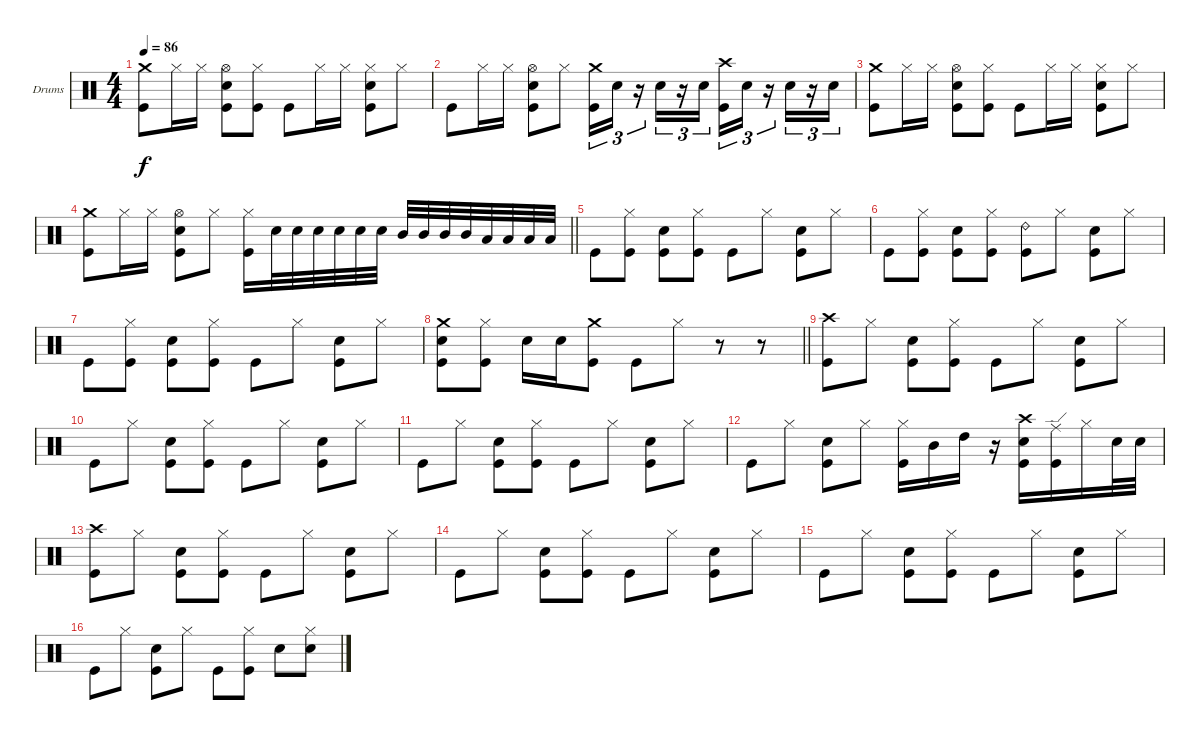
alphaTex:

\defaultSystemsLayout 4
\bracketExtendMode groupsimilarinstruments
\firstSystemTrackNameOrientation horizontal
\otherSystemsTrackNameOrientation horizontal
\track ("Drumkit" "Drums") {instrument percussion}
\staff {score}
\articulation defaults
\ts (4 4)
\tempo 86
\clef neutral
\scale
0.333333
\ks c
("Crash medium (hit)" "Kick (hit)").8{dy f} "Hi-Hat (closed)".16 "Hi-Hat (closed)".16 ("Hi-Hat (open)" "Snare (hit) 2" "Kick (hit)").8 ("Hi-Hat (closed)" "Kick (hit)").8 "Kick (hit)".8 "Hi-Hat (closed)".16 "Hi-Hat (closed)".16 ("Hi-Hat (closed)" "Snare (hit) 2" "Kick (hit)").8 "Hi-Hat (closed)".8 |
\scale
0.333333 "Kick (hit)".8 "Hi-Hat (closed)".16 "Hi-Hat (closed)".16 ("Hi-Hat (open)" "Snare (hit) 2" "Kick (hit)").8 "Hi-Hat (closed)".8 ("Crash medium (hit)" "Kick (hit)").16{tu (3 2)} "Snare (hit) 2".16{tu (3 2)} r.16{tu (3 2)} "Snare (hit) 2".16{tu (3 2)} r.16{tu (3 2)} "Snare (hit) 2".16{tu (3 2)} ("Crash high (hit)" "Kick (hit)").16{tu (3 2)} "Snare (hit) 2".16{tu (3 2)} r.16{tu (3 2)} "Snare (hit) 2".16{tu (3 2)} r.16{tu (3 2)} "Snare (hit) 2".16{tu (3 2)} |
\scale
0.333333 ("Crash medium (hit)" "Kick (hit)").8 "Hi-Hat (closed)".16 "Hi-Hat (closed)".16 ("Hi-Hat (open)" "Snare (hit) 2" "Kick (hit)").8 ("Hi-Hat (closed)" "Kick (hit)").8 "Kick (hit)".8 "Hi-Hat (closed)".16 "Hi-Hat (closed)".16 ("Hi-Hat (closed)" "Snare (hit) 2" "Kick (hit)").8 "Hi-Hat (closed)".8 |
\scale
0.333333
\barLineRight lightlight
("Crash medium (hit)" "Kick (hit)").8 "Hi-Hat (closed)".16 "Hi-Hat (closed)".16 ("Hi-Hat (open)" "Snare (hit) 2" "Kick (hit)").8 "Hi-Hat (closed)".8 ("Hi-Hat (closed)" "Kick (hit)").16 "Snare (hit) 2".32 "Snare (hit) 2".32 "Snare (hit) 2".32 "Snare (hit) 2".32 "Snare (hit) 2".32 "Snare (hit) 2".32 "Mid Tom (hit)".32 "Mid Tom (hit)".32 "Mid Tom (hit)".32 "Mid Tom (hit)".32 "Low Tom (hit)".32 "Low Tom (hit)".32 "Low Tom (hit)".32 "Low Tom (hit)".32 |
\scale
0.333333 "Kick (hit)".8 ("Hi-Hat (closed)" "Kick (hit)").8 ("Snare (hit) 2" "Kick (hit)").8 ("Hi-Hat (closed)" "Kick (hit)").8 "Kick (hit)".8 "Hi-Hat (closed)".8 ("Snare (hit) 2" "Kick (hit)").8 "Hi-Hat (closed)".8 |
\scale
0.333333 "Kick (hit)".8 ("Hi-Hat (closed)" "Kick (hit)").8 ("Snare (hit) 2" "Kick (hit)").8 ("Hi-Hat (closed)" "Kick (hit)").8 ("Ride (bell) 2" "Kick (hit)").8 "Hi-Hat (closed)".8 ("Snare (hit) 2" "Kick (hit)").8 "Hi-Hat (closed)".8 |
\scale
0.333333 "Kick (hit)".8 ("Hi-Hat (closed)" "Kick (hit)").8 ("Snare (hit) 2" "Kick (hit)").8 ("Hi-Hat (closed)" "Kick (hit)").8 "Kick (hit)".8 "Hi-Hat (closed)".8 ("Snare (hit) 2" "Kick (hit)").8 "Hi-Hat (closed)".8 |
\scale
0.333333
\barLineRight lightlight
("Crash medium (hit)" "Snare (hit) 2" "Kick (hit)").8 ("Hi-Hat (closed)" "Kick (hit)").8 "Snare (hit) 2".16 "Snare (hit) 2".16 ("Crash medium (hit)" "Kick (hit)").8 "Kick (hit)".8 "Hi-Hat (closed)".8 r.8 r.8 |
\scale
0.333333 ("Crash high (hit)" "Kick (hit)").8 "Hi-Hat (closed)".8 ("Snare (hit) 2" "Kick (hit)").8 ("Hi-Hat (closed)" "Kick (hit)").8 "Kick (hit)".8 "Hi-Hat (closed)".8 ("Snare (hit) 2" "Kick (hit)").8 "Hi-Hat (closed)".8 |
\scale
0.333333 "Kick (hit)".8 "Hi-Hat (closed)".8 ("Snare (hit) 2" "Kick (hit)").8 ("Hi-Hat (closed)" "Kick (hit)").8 "Kick (hit)".8 "Hi-Hat (closed)".8 ("Snare (hit) 2" "Kick (hit)").8 "Hi-Hat (closed)".8 |
\scale
0.333333 "Kick (hit)".8 "Hi-Hat (closed)".8 ("Snare (hit) 2" "Kick (hit)").8 ("Hi-Hat (closed)" "Kick (hit)").8 "Kick (hit)".8 "Hi-Hat (closed)".8 ("Snare (hit) 2" "Kick (hit)").8 "Hi-Hat (closed)".8 |
\scale
0.333333 "Kick (hit)".8 "Hi-Hat (closed)".8 ("Snare (hit) 2" "Kick (hit)").8 "Hi-Hat (closed)".8 ("Hi-Hat (closed)" "Kick (hit)").16 "Mid Tom (hit)".16 "High Tom (hit)".16 r.16 ("Crash high (hit)" "Snare (hit) 2" "Kick (hit)").16 ("Ride (edge)" "Kick (hit)").16 "Hi-Hat (closed)".16 "Snare (hit) 2".32 "Snare (hit) 2".32 |
\scale
0.333333 ("Crash high (hit)" "Kick (hit)").8 "Hi-Hat (closed)".8 ("Snare (hit) 2" "Kick (hit)").8 ("Hi-Hat (closed)" "Kick (hit)").8 "Kick (hit)".8 "Hi-Hat (closed)".8 ("Snare (hit) 2" "Kick (hit)").8 "Hi-Hat (closed)".8 |
\scale
0.333333 "Kick (hit)".8 "Hi-Hat (closed)".8 ("Snare (hit) 2" "Kick (hit)").8 ("Hi-Hat (closed)" "Kick (hit)").8 "Kick (hit)".8 "Hi-Hat (closed)".8 ("Snare (hit) 2" "Kick (hit)").8 "Hi-Hat (closed)".8 |
\scale
0.263889 "Kick (hit)".8 "Hi-Hat (closed)".8 ("Snare (hit) 2" "Kick (hit)").8 ("Hi-Hat (closed)" "Kick (hit)").8 "Kick (hit)".8 "Hi-Hat (closed)".8 ("Snare (hit) 2" "Kick (hit)").8 "Hi-Hat (closed)".8 |
\scale
0.263889 "Kick (hit)".8 "Hi-Hat (closed)".8 ("Snare (hit) 2" "Kick (hit)").8 "Hi-Hat (closed)".8 "Kick (hit)".8 ("Hi-Hat (closed)" "Kick (hit)").8 "Snare (hit) 2".8 ("Hi-Hat (closed)" "Snare (hit) 2").8
